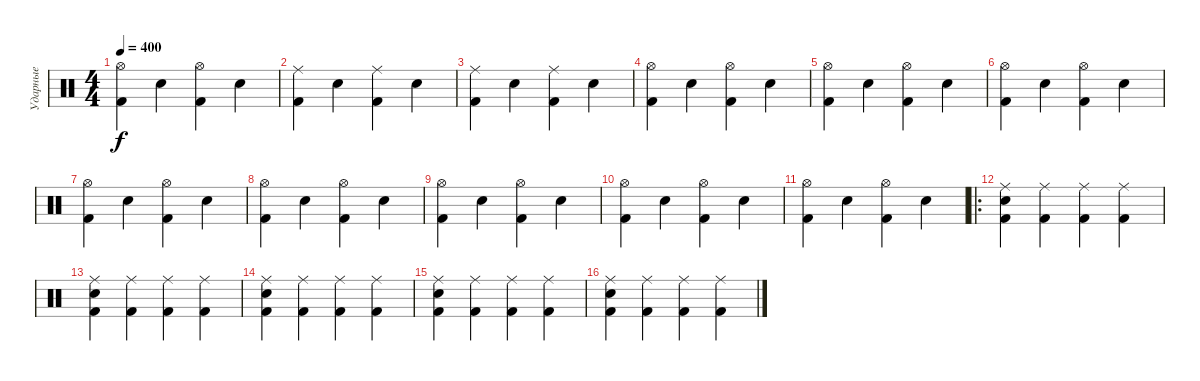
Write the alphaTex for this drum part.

\track ("Ударные" "Ударные") {instrument percussion}
\staff {score}
\articulation defaults
\ts (4 4)
\tempo 400
\clef neutral
\ks c
("Kick (hit) 2" "Hi-Hat (open)").4{dy f} "Electric Snare (hit)".4 ("Kick (hit) 2" "Hi-Hat (open)").4 "Electric Snare (hit)".4 |
("Kick (hit) 2" "Ride (middle)").4 "Electric Snare (hit)".4 ("Kick (hit) 2" "Ride (middle)").4 "Electric Snare (hit)".4 |
("Kick (hit) 2" "Ride (middle)").4 "Electric Snare (hit)".4 ("Kick (hit) 2" "Ride (middle)").4 "Electric Snare (hit)".4 |
("Kick (hit) 2" "Hi-Hat (open)").4 "Electric Snare (hit)".4 ("Kick (hit) 2" "Hi-Hat (open)").4 "Electric Snare (hit)".4 |
("Kick (hit) 2" "Hi-Hat (open)").4 "Electric Snare (hit)".4 ("Kick (hit) 2" "Hi-Hat (open)").4 "Electric Snare (hit)".4 |
("Kick (hit) 2" "Hi-Hat (open)").4 "Electric Snare (hit)".4 ("Kick (hit) 2" "Hi-Hat (open)").4 "Electric Snare (hit)".4 |
("Kick (hit) 2" "Hi-Hat (open)").4 "Electric Snare (hit)".4 ("Kick (hit) 2" "Hi-Hat (open)").4 "Electric Snare (hit)".4 |
("Kick (hit) 2" "Hi-Hat (open)").4 "Electric Snare (hit)".4 ("Kick (hit) 2" "Hi-Hat (open)").4 "Electric Snare (hit)".4 |
("Kick (hit) 2" "Hi-Hat (open)").4 "Electric Snare (hit)".4 ("Kick (hit) 2" "Hi-Hat (open)").4 "Electric Snare (hit)".4 |
("Kick (hit) 2" "Hi-Hat (open)").4 "Electric Snare (hit)".4 ("Kick (hit) 2" "Hi-Hat (open)").4 "Electric Snare (hit)".4 |
("Kick (hit) 2" "Hi-Hat (open)").4 "Electric Snare (hit)".4 ("Kick (hit) 2" "Hi-Hat (open)").4 "Electric Snare (hit)".4 |
\ro
("Kick (hit) 2" "Electric Snare (hit)" "Ride (middle)").4 ("Kick (hit) 2" "Ride (middle)").4 ("Kick (hit) 2" "Ride (middle)").4 ("Kick (hit) 2" "Ride (middle)").4 |
("Kick (hit) 2" "Electric Snare (hit)" "Ride (middle)").4 ("Kick (hit) 2" "Ride (middle)").4 ("Kick (hit) 2" "Ride (middle)").4 ("Kick (hit) 2" "Ride (middle)").4 |
("Kick (hit) 2" "Electric Snare (hit)" "Ride (middle)").4 ("Kick (hit) 2" "Ride (middle)").4 ("Kick (hit) 2" "Ride (middle)").4 ("Kick (hit) 2" "Ride (middle)").4 |
("Kick (hit) 2" "Electric Snare (hit)" "Ride (middle)").4 ("Kick (hit) 2" "Ride (middle)").4 ("Kick (hit) 2" "Ride (middle)").4 ("Kick (hit) 2" "Ride (middle)").4 |
("Kick (hit) 2" "Electric Snare (hit)" "Ride (middle)").4 ("Kick (hit) 2" "Ride (middle)").4 ("Kick (hit) 2" "Ride (middle)").4 ("Kick (hit) 2" "Ride (middle)").4
